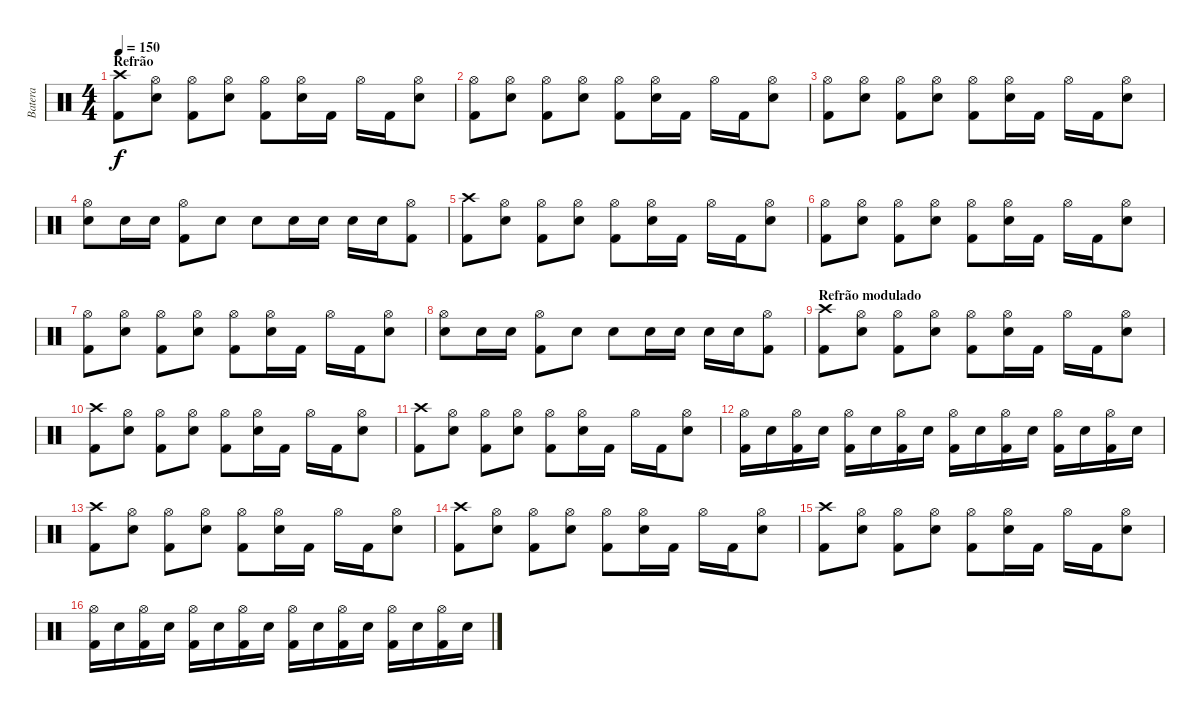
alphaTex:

\track ("Batera" "Batera") {instrument percussion}
\staff {score}
\articulation defaults
\ts (4 4)
\section ("" "Refrão")
\tempo 150
\clef neutral
\ks c
("Crash high (hit)" "Kick (hit) 2").8{dy f} ("Hi-Hat (open)" "Snare (hit) 2").8 ("Hi-Hat (open)" "Kick (hit) 2").8 ("Hi-Hat (open)" "Snare (hit) 2").8 ("Hi-Hat (open)" "Kick (hit) 2").8 ("Hi-Hat (open)" "Snare (hit) 2").16 "Kick (hit) 2".16 "Hi-Hat (open)".16 "Kick (hit) 2".16 ("Hi-Hat (open)" "Snare (hit) 2").8 |
("Hi-Hat (open)" "Kick (hit) 2").8 ("Hi-Hat (open)" "Snare (hit) 2").8 ("Hi-Hat (open)" "Kick (hit) 2").8 ("Hi-Hat (open)" "Snare (hit) 2").8 ("Hi-Hat (open)" "Kick (hit) 2").8 ("Hi-Hat (open)" "Snare (hit) 2").16 "Kick (hit) 2".16 "Hi-Hat (open)".16 "Kick (hit) 2".16 ("Hi-Hat (open)" "Snare (hit) 2").8 |
("Hi-Hat (open)" "Kick (hit) 2").8 ("Hi-Hat (open)" "Snare (hit) 2").8 ("Hi-Hat (open)" "Kick (hit) 2").8 ("Hi-Hat (open)" "Snare (hit) 2").8 ("Hi-Hat (open)" "Kick (hit) 2").8 ("Hi-Hat (open)" "Snare (hit) 2").16 "Kick (hit) 2".16 "Hi-Hat (open)".16 "Kick (hit) 2".16 ("Hi-Hat (open)" "Snare (hit) 2").8 |
("Hi-Hat (open)" "Snare (hit) 2").8 "Snare (hit) 2".16 "Snare (hit) 2".16 ("Hi-Hat (open)" "Kick (hit) 2").8 "Snare (hit) 2".8 "Snare (hit) 2".8 "Snare (hit) 2".16 "Snare (hit) 2".16 "Snare (hit) 2".16 "Snare (hit) 2".16 ("Hi-Hat (open)" "Kick (hit) 2").8 |
("Crash high (hit)" "Kick (hit) 2").8 ("Hi-Hat (open)" "Snare (hit) 2").8 ("Hi-Hat (open)" "Kick (hit) 2").8 ("Hi-Hat (open)" "Snare (hit) 2").8 ("Hi-Hat (open)" "Kick (hit) 2").8 ("Hi-Hat (open)" "Snare (hit) 2").16 "Kick (hit) 2".16 "Hi-Hat (open)".16 "Kick (hit) 2".16 ("Hi-Hat (open)" "Snare (hit) 2").8 |
("Hi-Hat (open)" "Kick (hit) 2").8 ("Hi-Hat (open)" "Snare (hit) 2").8 ("Hi-Hat (open)" "Kick (hit) 2").8 ("Hi-Hat (open)" "Snare (hit) 2").8 ("Hi-Hat (open)" "Kick (hit) 2").8 ("Hi-Hat (open)" "Snare (hit) 2").16 "Kick (hit) 2".16 "Hi-Hat (open)".16 "Kick (hit) 2".16 ("Hi-Hat (open)" "Snare (hit) 2").8 |
("Hi-Hat (open)" "Kick (hit) 2").8 ("Hi-Hat (open)" "Snare (hit) 2").8 ("Hi-Hat (open)" "Kick (hit) 2").8 ("Hi-Hat (open)" "Snare (hit) 2").8 ("Hi-Hat (open)" "Kick (hit) 2").8 ("Hi-Hat (open)" "Snare (hit) 2").16 "Kick (hit) 2".16 "Hi-Hat (open)".16 "Kick (hit) 2".16 ("Hi-Hat (open)" "Snare (hit) 2").8 |
("Hi-Hat (open)" "Snare (hit) 2").8 "Snare (hit) 2".16 "Snare (hit) 2".16 ("Hi-Hat (open)" "Kick (hit) 2").8 "Snare (hit) 2".8 "Snare (hit) 2".8 "Snare (hit) 2".16 "Snare (hit) 2".16 "Snare (hit) 2".16 "Snare (hit) 2".16 ("Hi-Hat (open)" "Kick (hit) 2").8 |
\section ("" "Refrão modulado")
("Crash high (hit)" "Kick (hit) 2").8 ("Hi-Hat (open)" "Snare (hit) 2").8 ("Hi-Hat (open)" "Kick (hit) 2").8 ("Hi-Hat (open)" "Snare (hit) 2").8 ("Hi-Hat (open)" "Kick (hit) 2").8 ("Hi-Hat (open)" "Snare (hit) 2").16 "Kick (hit) 2".16 "Hi-Hat (open)".16 "Kick (hit) 2".16 ("Hi-Hat (open)" "Snare (hit) 2").8 |
("Crash high (hit)" "Kick (hit) 2").8 ("Hi-Hat (open)" "Snare (hit) 2").8 ("Hi-Hat (open)" "Kick (hit) 2").8 ("Hi-Hat (open)" "Snare (hit) 2").8 ("Hi-Hat (open)" "Kick (hit) 2").8 ("Hi-Hat (open)" "Snare (hit) 2").16 "Kick (hit) 2".16 "Hi-Hat (open)".16 "Kick (hit) 2".16 ("Hi-Hat (open)" "Snare (hit) 2").8 |
("Crash high (hit)" "Kick (hit) 2").8 ("Hi-Hat (open)" "Snare (hit) 2").8 ("Hi-Hat (open)" "Kick (hit) 2").8 ("Hi-Hat (open)" "Snare (hit) 2").8 ("Hi-Hat (open)" "Kick (hit) 2").8 ("Hi-Hat (open)" "Snare (hit) 2").16 "Kick (hit) 2".16 "Hi-Hat (open)".16 "Kick (hit) 2".16 ("Hi-Hat (open)" "Snare (hit) 2").8 |
("Hi-Hat (open)" "Kick (hit) 2").16 "Snare (hit) 2".16 ("Hi-Hat (open)" "Kick (hit) 2").16 "Snare (hit) 2".16 ("Hi-Hat (open)" "Kick (hit) 2").16 "Snare (hit) 2".16 ("Hi-Hat (open)" "Kick (hit) 2").16 "Snare (hit) 2".16 ("Hi-Hat (open)" "Kick (hit) 2").16 "Snare (hit) 2".16 ("Hi-Hat (open)" "Kick (hit) 2").16 "Snare (hit) 2".16 ("Hi-Hat (open)" "Kick (hit) 2").16 "Snare (hit) 2".16 ("Hi-Hat (open)" "Kick (hit) 2").16 "Snare (hit) 2".16 |
("Crash high (hit)" "Kick (hit) 2").8 ("Hi-Hat (open)" "Snare (hit) 2").8 ("Hi-Hat (open)" "Kick (hit) 2").8 ("Hi-Hat (open)" "Snare (hit) 2").8 ("Hi-Hat (open)" "Kick (hit) 2").8 ("Hi-Hat (open)" "Snare (hit) 2").16 "Kick (hit) 2".16 "Hi-Hat (open)".16 "Kick (hit) 2".16 ("Hi-Hat (open)" "Snare (hit) 2").8 |
("Crash high (hit)" "Kick (hit) 2").8 ("Hi-Hat (open)" "Snare (hit) 2").8 ("Hi-Hat (open)" "Kick (hit) 2").8 ("Hi-Hat (open)" "Snare (hit) 2").8 ("Hi-Hat (open)" "Kick (hit) 2").8 ("Hi-Hat (open)" "Snare (hit) 2").16 "Kick (hit) 2".16 "Hi-Hat (open)".16 "Kick (hit) 2".16 ("Hi-Hat (open)" "Snare (hit) 2").8 |
("Crash high (hit)" "Kick (hit) 2").8 ("Hi-Hat (open)" "Snare (hit) 2").8 ("Hi-Hat (open)" "Kick (hit) 2").8 ("Hi-Hat (open)" "Snare (hit) 2").8 ("Hi-Hat (open)" "Kick (hit) 2").8 ("Hi-Hat (open)" "Snare (hit) 2").16 "Kick (hit) 2".16 "Hi-Hat (open)".16 "Kick (hit) 2".16 ("Hi-Hat (open)" "Snare (hit) 2").8 |
("Hi-Hat (open)" "Kick (hit) 2").16 "Snare (hit) 2".16 ("Hi-Hat (open)" "Kick (hit) 2").16 "Snare (hit) 2".16 ("Hi-Hat (open)" "Kick (hit) 2").16 "Snare (hit) 2".16 ("Hi-Hat (open)" "Kick (hit) 2").16 "Snare (hit) 2".16 ("Hi-Hat (open)" "Kick (hit) 2").16 "Snare (hit) 2".16 ("Hi-Hat (open)" "Kick (hit) 2").16 "Snare (hit) 2".16 ("Hi-Hat (open)" "Kick (hit) 2").16 "Snare (hit) 2".16 ("Hi-Hat (open)" "Kick (hit) 2").16 "Snare (hit) 2".16
